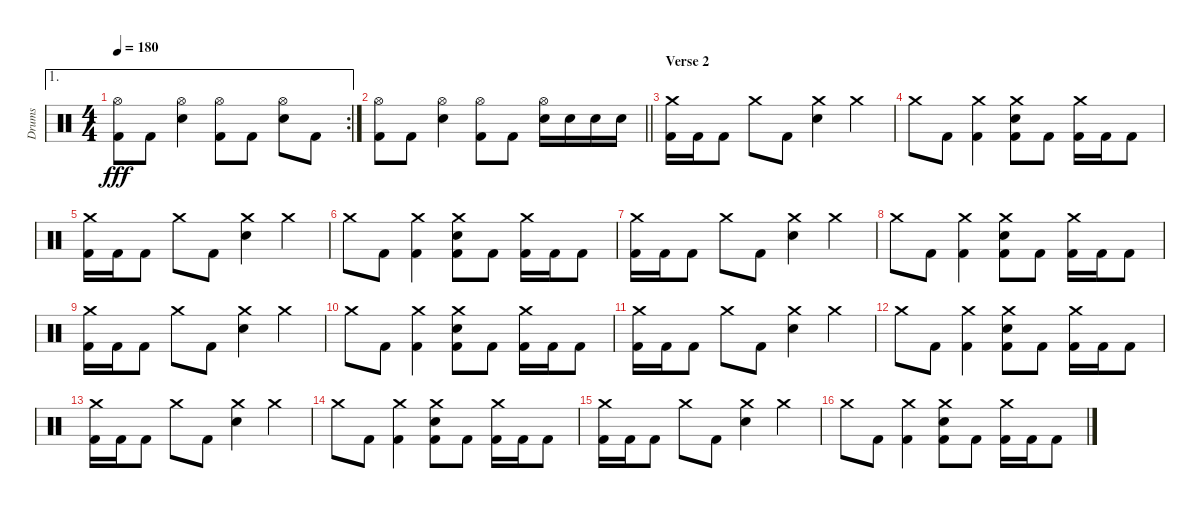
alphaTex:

\track ("Drums" "Drums") {instrument percussion}
\staff {score}
\articulation defaults
\ae 1
\rc 2
\ts (4 4)
\tempo 180
\clef neutral
\ks c
("Hi-Hat (open)" "Kick (hit) 2").8{dy fff} "Kick (hit) 2".8 ("Hi-Hat (open)" "Snare (hit) 2").4 ("Hi-Hat (open)" "Kick (hit) 2").8 "Kick (hit) 2".8 ("Hi-Hat (open)" "Snare (hit) 2").8 "Kick (hit) 2".8 |
\barLineRight lightlight
("Hi-Hat (open)" "Kick (hit) 2").8 "Kick (hit) 2".8 ("Hi-Hat (open)" "Snare (hit) 2").4 ("Hi-Hat (open)" "Kick (hit) 2").8 "Kick (hit) 2".8 ("Hi-Hat (open)" "Snare (hit) 2").16 "Snare (hit) 2".16 "Snare (hit) 2".16 "Snare (hit) 2".16 |
\section ("" "Verse 2")
("Crash medium (hit)" "Kick (hit) 2").16 "Kick (hit) 2".16 "Kick (hit) 2".8 "Crash medium (hit)".8 "Kick (hit) 2".8 ("Crash medium (hit)" "Snare (hit) 2").4 "Crash medium (hit)".4 |
"Crash medium (hit)".8 "Kick (hit) 2".8 ("Crash medium (hit)" "Kick (hit) 2").4 ("Crash medium (hit)" "Snare (hit) 2" "Kick (hit) 2").8 "Kick (hit) 2".8 ("Crash medium (hit)" "Kick (hit) 2").16 "Kick (hit) 2".16 "Kick (hit) 2".8 |
("Crash medium (hit)" "Kick (hit) 2").16 "Kick (hit) 2".16 "Kick (hit) 2".8 "Crash medium (hit)".8 "Kick (hit) 2".8 ("Crash medium (hit)" "Snare (hit) 2").4 "Crash medium (hit)".4 |
"Crash medium (hit)".8 "Kick (hit) 2".8 ("Crash medium (hit)" "Kick (hit) 2").4 ("Crash medium (hit)" "Snare (hit) 2" "Kick (hit) 2").8 "Kick (hit) 2".8 ("Crash medium (hit)" "Kick (hit) 2").16 "Kick (hit) 2".16 "Kick (hit) 2".8 |
("Crash medium (hit)" "Kick (hit) 2").16 "Kick (hit) 2".16 "Kick (hit) 2".8 "Crash medium (hit)".8 "Kick (hit) 2".8 ("Crash medium (hit)" "Snare (hit) 2").4 "Crash medium (hit)".4 |
"Crash medium (hit)".8 "Kick (hit) 2".8 ("Crash medium (hit)" "Kick (hit) 2").4 ("Crash medium (hit)" "Snare (hit) 2" "Kick (hit) 2").8 "Kick (hit) 2".8 ("Crash medium (hit)" "Kick (hit) 2").16 "Kick (hit) 2".16 "Kick (hit) 2".8 |
("Crash medium (hit)" "Kick (hit) 2").16 "Kick (hit) 2".16 "Kick (hit) 2".8 "Crash medium (hit)".8 "Kick (hit) 2".8 ("Crash medium (hit)" "Snare (hit) 2").4 "Crash medium (hit)".4 |
"Crash medium (hit)".8 "Kick (hit) 2".8 ("Crash medium (hit)" "Kick (hit) 2").4 ("Crash medium (hit)" "Snare (hit) 2" "Kick (hit) 2").8 "Kick (hit) 2".8 ("Crash medium (hit)" "Kick (hit) 2").16 "Kick (hit) 2".16 "Kick (hit) 2".8 |
("Crash medium (hit)" "Kick (hit) 2").16 "Kick (hit) 2".16 "Kick (hit) 2".8 "Crash medium (hit)".8 "Kick (hit) 2".8 ("Crash medium (hit)" "Snare (hit) 2").4 "Crash medium (hit)".4 |
"Crash medium (hit)".8 "Kick (hit) 2".8 ("Crash medium (hit)" "Kick (hit) 2").4 ("Crash medium (hit)" "Snare (hit) 2" "Kick (hit) 2").8 "Kick (hit) 2".8 ("Crash medium (hit)" "Kick (hit) 2").16 "Kick (hit) 2".16 "Kick (hit) 2".8 |
("Crash medium (hit)" "Kick (hit) 2").16 "Kick (hit) 2".16 "Kick (hit) 2".8 "Crash medium (hit)".8 "Kick (hit) 2".8 ("Crash medium (hit)" "Snare (hit) 2").4 "Crash medium (hit)".4 |
"Crash medium (hit)".8 "Kick (hit) 2".8 ("Crash medium (hit)" "Kick (hit) 2").4 ("Crash medium (hit)" "Snare (hit) 2" "Kick (hit) 2").8 "Kick (hit) 2".8 ("Crash medium (hit)" "Kick (hit) 2").16 "Kick (hit) 2".16 "Kick (hit) 2".8 |
("Crash medium (hit)" "Kick (hit) 2").16 "Kick (hit) 2".16 "Kick (hit) 2".8 "Crash medium (hit)".8 "Kick (hit) 2".8 ("Crash medium (hit)" "Snare (hit) 2").4 "Crash medium (hit)".4 |
"Crash medium (hit)".8 "Kick (hit) 2".8 ("Crash medium (hit)" "Kick (hit) 2").4 ("Crash medium (hit)" "Snare (hit) 2" "Kick (hit) 2").8 "Kick (hit) 2".8 ("Crash medium (hit)" "Kick (hit) 2").16 "Kick (hit) 2".16 "Kick (hit) 2".8
